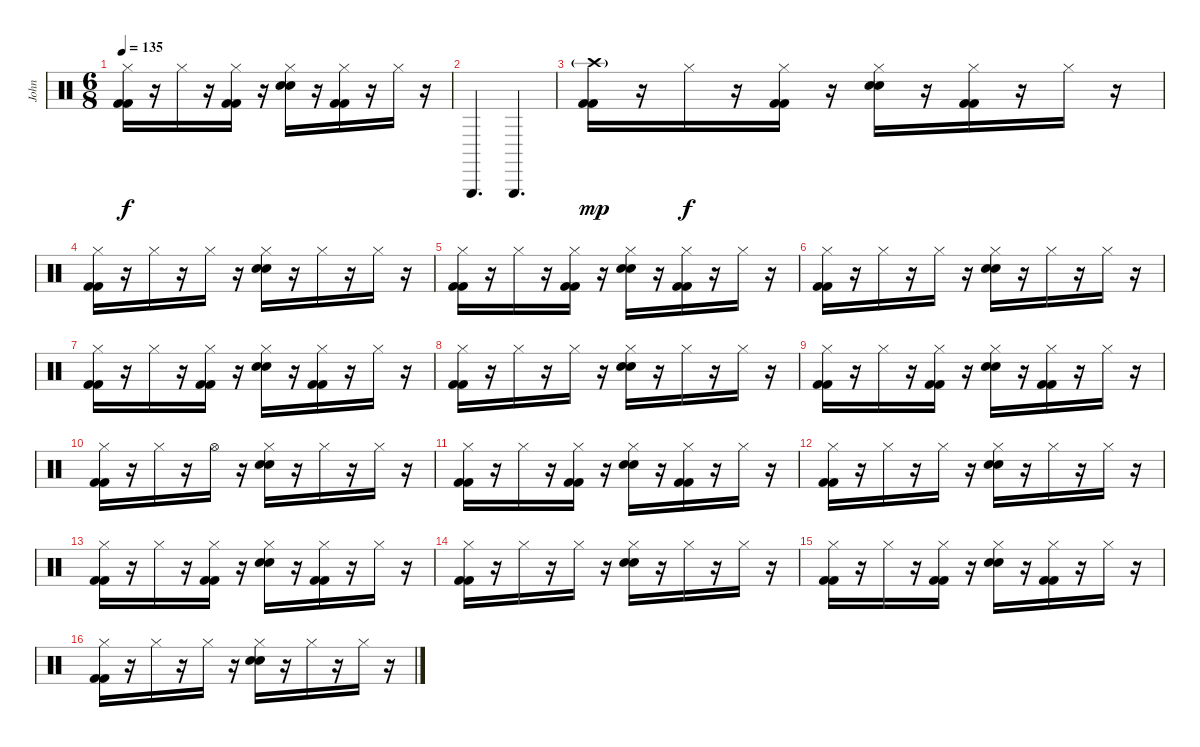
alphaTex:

\track ("John" "John") {instrument percussion}
\staff {score}
\articulation defaults
\ts (6 8)
\tempo 135
\clef neutral
\ks c
("Hi-Hat (closed)" "Kick (hit) 2" "Kick (hit) 2").16{dy f} r.16 "Hi-Hat (closed)".16 r.16 ("Hi-Hat (closed)" "Kick (hit) 2" "Kick (hit) 2").16 r.16 ("Hi-Hat (closed)" "Electric Snare (hit)" "Electric Snare (hit)").16 r.16 ("Hi-Hat (closed)" "Kick (hit) 2" "Kick (hit) 2").16 r.16 "Hi-Hat (closed)".16 r.16 |
"Triangle (hit)".4{d} "Triangle (hit)".4{d} |
("Crash high (hit)"{g} "Kick (hit) 2" "Kick (hit) 2").16{dy mp} r.16 "Hi-Hat (closed)".16{dy f} r.16 ("Hi-Hat (closed)" "Kick (hit) 2" "Kick (hit) 2").16 r.16 ("Hi-Hat (closed)" "Electric Snare (hit)" "Electric Snare (hit)").16 r.16 ("Hi-Hat (closed)" "Kick (hit) 2" "Kick (hit) 2").16 r.16 "Hi-Hat (closed)".16 r.16 |
("Hi-Hat (closed)" "Kick (hit) 2" "Kick (hit) 2").16 r.16 "Hi-Hat (closed)".16 r.16 "Hi-Hat (closed)".16 r.16 ("Hi-Hat (closed)" "Electric Snare (hit)" "Electric Snare (hit)").16 r.16 "Hi-Hat (closed)".16 r.16 "Hi-Hat (closed)".16 r.16 |
("Hi-Hat (closed)" "Kick (hit) 2" "Kick (hit) 2").16 r.16 "Hi-Hat (closed)".16 r.16 ("Hi-Hat (closed)" "Kick (hit) 2" "Kick (hit) 2").16 r.16 ("Hi-Hat (closed)" "Electric Snare (hit)" "Electric Snare (hit)").16 r.16 ("Hi-Hat (closed)" "Kick (hit) 2" "Kick (hit) 2").16 r.16 "Hi-Hat (closed)".16 r.16 |
("Hi-Hat (closed)" "Kick (hit) 2" "Kick (hit) 2").16 r.16 "Hi-Hat (closed)".16 r.16 "Hi-Hat (closed)".16 r.16 ("Hi-Hat (closed)" "Electric Snare (hit)" "Electric Snare (hit)").16 r.16 "Hi-Hat (closed)".16 r.16 "Hi-Hat (closed)".16 r.16 |
("Hi-Hat (closed)" "Kick (hit) 2" "Kick (hit) 2").16 r.16 "Hi-Hat (closed)".16 r.16 ("Hi-Hat (closed)" "Kick (hit) 2" "Kick (hit) 2").16 r.16 ("Hi-Hat (closed)" "Electric Snare (hit)" "Electric Snare (hit)").16 r.16 ("Hi-Hat (closed)" "Kick (hit) 2" "Kick (hit) 2").16 r.16 "Hi-Hat (closed)".16 r.16 |
("Hi-Hat (closed)" "Kick (hit) 2" "Kick (hit) 2").16 r.16 "Hi-Hat (closed)".16 r.16 "Hi-Hat (closed)".16 r.16 ("Hi-Hat (closed)" "Electric Snare (hit)" "Electric Snare (hit)").16 r.16 "Hi-Hat (closed)".16 r.16 "Hi-Hat (closed)".16 r.16 |
("Hi-Hat (closed)" "Kick (hit) 2" "Kick (hit) 2").16 r.16 "Hi-Hat (closed)".16 r.16 ("Hi-Hat (closed)" "Kick (hit) 2" "Kick (hit) 2").16 r.16 ("Hi-Hat (closed)" "Electric Snare (hit)" "Electric Snare (hit)").16 r.16 ("Hi-Hat (closed)" "Kick (hit) 2" "Kick (hit) 2").16 r.16 "Hi-Hat (closed)".16 r.16 |
("Hi-Hat (closed)" "Kick (hit) 2" "Kick (hit) 2").16 r.16 "Hi-Hat (closed)".16 r.16 "Hi-Hat (open)".16 r.16 ("Hi-Hat (closed)" "Electric Snare (hit)" "Electric Snare (hit)").16 r.16 "Hi-Hat (closed)".16 r.16 "Hi-Hat (closed)".16 r.16 |
("Hi-Hat (closed)" "Kick (hit) 2" "Kick (hit) 2").16 r.16 "Hi-Hat (closed)".16 r.16 ("Hi-Hat (closed)" "Kick (hit) 2" "Kick (hit) 2").16 r.16 ("Hi-Hat (closed)" "Electric Snare (hit)" "Electric Snare (hit)").16 r.16 ("Hi-Hat (closed)" "Kick (hit) 2" "Kick (hit) 2").16 r.16 "Hi-Hat (closed)".16 r.16 |
("Hi-Hat (closed)" "Kick (hit) 2" "Kick (hit) 2").16 r.16 "Hi-Hat (closed)".16 r.16 "Hi-Hat (closed)".16 r.16 ("Hi-Hat (closed)" "Electric Snare (hit)" "Electric Snare (hit)").16 r.16 "Hi-Hat (closed)".16 r.16 "Hi-Hat (closed)".16 r.16 |
("Hi-Hat (closed)" "Kick (hit) 2" "Kick (hit) 2").16 r.16 "Hi-Hat (closed)".16 r.16 ("Hi-Hat (closed)" "Kick (hit) 2" "Kick (hit) 2").16 r.16 ("Hi-Hat (closed)" "Electric Snare (hit)" "Electric Snare (hit)").16 r.16 ("Hi-Hat (closed)" "Kick (hit) 2" "Kick (hit) 2").16 r.16 "Hi-Hat (closed)".16 r.16 |
("Hi-Hat (closed)" "Kick (hit) 2" "Kick (hit) 2").16 r.16 "Hi-Hat (closed)".16 r.16 "Hi-Hat (closed)".16 r.16 ("Hi-Hat (closed)" "Electric Snare (hit)" "Electric Snare (hit)").16 r.16 "Hi-Hat (closed)".16 r.16 "Hi-Hat (closed)".16 r.16 |
("Hi-Hat (closed)" "Kick (hit) 2" "Kick (hit) 2").16 r.16 "Hi-Hat (closed)".16 r.16 ("Hi-Hat (closed)" "Kick (hit) 2" "Kick (hit) 2").16 r.16 ("Hi-Hat (closed)" "Electric Snare (hit)" "Electric Snare (hit)").16 r.16 ("Hi-Hat (closed)" "Kick (hit) 2" "Kick (hit) 2").16 r.16 "Hi-Hat (closed)".16 r.16 |
("Hi-Hat (closed)" "Kick (hit) 2" "Kick (hit) 2").16 r.16 "Hi-Hat (closed)".16 r.16 "Hi-Hat (closed)".16 r.16 ("Hi-Hat (closed)" "Electric Snare (hit)" "Electric Snare (hit)").16 r.16 "Hi-Hat (closed)".16 r.16 "Hi-Hat (closed)".16 r.16
